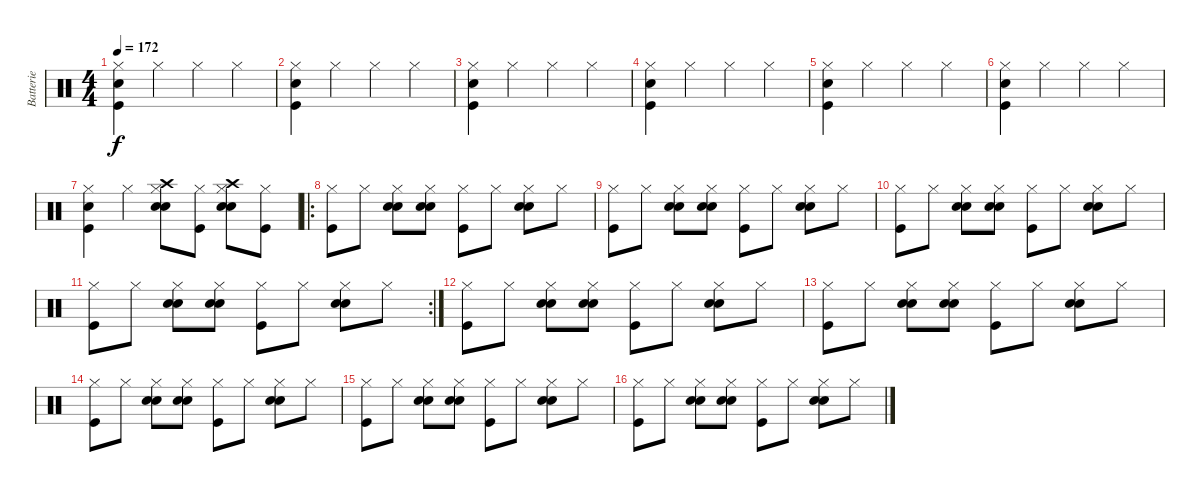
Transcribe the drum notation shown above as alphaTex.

\track ("Batterie" "Batterie") {instrument percussion}
\staff {score}
\articulation defaults
\ts (4 4)
\tempo 172
\clef neutral
\ks c
("Hi-Hat (closed)" "Snare (hit) 2" "Kick (hit)").4{dy f} "Hi-Hat (closed)".4 "Hi-Hat (closed)".4 "Hi-Hat (closed)".4 |
("Hi-Hat (closed)" "Snare (hit) 2" "Kick (hit)").4 "Hi-Hat (closed)".4 "Hi-Hat (closed)".4 "Hi-Hat (closed)".4 |
("Hi-Hat (closed)" "Snare (hit) 2" "Kick (hit)").4 "Hi-Hat (closed)".4 "Hi-Hat (closed)".4 "Hi-Hat (closed)".4 |
("Hi-Hat (closed)" "Snare (hit) 2" "Kick (hit)").4 "Hi-Hat (closed)".4 "Hi-Hat (closed)".4 "Hi-Hat (closed)".4 |
("Hi-Hat (closed)" "Snare (hit) 2" "Kick (hit)").4 "Hi-Hat (closed)".4 "Hi-Hat (closed)".4 "Hi-Hat (closed)".4 |
("Hi-Hat (closed)" "Snare (hit) 2" "Kick (hit)").4 "Hi-Hat (closed)".4 "Hi-Hat (closed)".4 "Hi-Hat (closed)".4 |
("Hi-Hat (closed)" "Snare (hit) 2" "Kick (hit)").4 "Hi-Hat (closed)".4 ("Crash high (hit)" "Snare (hit) 2" "Hi-Hat (closed)" "Electric Snare (hit)").8 ("Hi-Hat (closed)" "Kick (hit)").8 ("Crash high (hit)" "Snare (hit) 2" "Hi-Hat (closed)" "Electric Snare (hit)").8 ("Hi-Hat (closed)" "Kick (hit)").8 |
\ro
("Hi-Hat (closed)" "Kick (hit)").8 "Hi-Hat (closed)".8 ("Electric Snare (hit)" "Hi-Hat (closed)" "Snare (hit) 2").8 ("Electric Snare (hit)" "Hi-Hat (closed)" "Snare (hit) 2").8 ("Hi-Hat (closed)" "Kick (hit)").8 "Hi-Hat (closed)".8 ("Electric Snare (hit)" "Hi-Hat (closed)" "Snare (hit) 2").8 "Hi-Hat (closed)".8 |
("Hi-Hat (closed)" "Kick (hit)").8 "Hi-Hat (closed)".8 ("Electric Snare (hit)" "Hi-Hat (closed)" "Snare (hit) 2").8 ("Electric Snare (hit)" "Hi-Hat (closed)" "Snare (hit) 2").8 ("Hi-Hat (closed)" "Kick (hit)").8 "Hi-Hat (closed)".8 ("Electric Snare (hit)" "Hi-Hat (closed)" "Snare (hit) 2").8 "Hi-Hat (closed)".8 |
("Hi-Hat (closed)" "Kick (hit)").8 "Hi-Hat (closed)".8 ("Electric Snare (hit)" "Hi-Hat (closed)" "Snare (hit) 2").8 ("Electric Snare (hit)" "Hi-Hat (closed)" "Snare (hit) 2").8 ("Hi-Hat (closed)" "Kick (hit)").8 "Hi-Hat (closed)".8 ("Electric Snare (hit)" "Hi-Hat (closed)" "Snare (hit) 2").8 "Hi-Hat (closed)".8 |
\rc 2
("Hi-Hat (closed)" "Kick (hit)").8 "Hi-Hat (closed)".8 ("Electric Snare (hit)" "Hi-Hat (closed)" "Snare (hit) 2").8 ("Electric Snare (hit)" "Hi-Hat (closed)" "Snare (hit) 2").8 ("Hi-Hat (closed)" "Kick (hit)").8 "Hi-Hat (closed)".8 ("Electric Snare (hit)" "Hi-Hat (closed)" "Snare (hit) 2").8 "Hi-Hat (closed)".8 |
("Hi-Hat (closed)" "Kick (hit)").8 "Hi-Hat (closed)".8 ("Electric Snare (hit)" "Hi-Hat (closed)" "Snare (hit) 2").8 ("Electric Snare (hit)" "Hi-Hat (closed)" "Snare (hit) 2").8 ("Hi-Hat (closed)" "Kick (hit)").8 "Hi-Hat (closed)".8 ("Electric Snare (hit)" "Hi-Hat (closed)" "Snare (hit) 2").8 "Hi-Hat (closed)".8 |
("Hi-Hat (closed)" "Kick (hit)").8 "Hi-Hat (closed)".8 ("Electric Snare (hit)" "Hi-Hat (closed)" "Snare (hit) 2").8 ("Electric Snare (hit)" "Hi-Hat (closed)" "Snare (hit) 2").8 ("Hi-Hat (closed)" "Kick (hit)").8 "Hi-Hat (closed)".8 ("Electric Snare (hit)" "Hi-Hat (closed)" "Snare (hit) 2").8 "Hi-Hat (closed)".8 |
("Hi-Hat (closed)" "Kick (hit)").8 "Hi-Hat (closed)".8 ("Electric Snare (hit)" "Hi-Hat (closed)" "Snare (hit) 2").8 ("Electric Snare (hit)" "Hi-Hat (closed)" "Snare (hit) 2").8 ("Hi-Hat (closed)" "Kick (hit)").8 "Hi-Hat (closed)".8 ("Electric Snare (hit)" "Hi-Hat (closed)" "Snare (hit) 2").8 "Hi-Hat (closed)".8 |
("Hi-Hat (closed)" "Kick (hit)").8 "Hi-Hat (closed)".8 ("Electric Snare (hit)" "Hi-Hat (closed)" "Snare (hit) 2").8 ("Electric Snare (hit)" "Hi-Hat (closed)" "Snare (hit) 2").8 ("Hi-Hat (closed)" "Kick (hit)").8 "Hi-Hat (closed)".8 ("Electric Snare (hit)" "Hi-Hat (closed)" "Snare (hit) 2").8 "Hi-Hat (closed)".8 |
("Hi-Hat (closed)" "Kick (hit)").8 "Hi-Hat (closed)".8 ("Electric Snare (hit)" "Hi-Hat (closed)" "Snare (hit) 2").8 ("Electric Snare (hit)" "Hi-Hat (closed)" "Snare (hit) 2").8 ("Hi-Hat (closed)" "Kick (hit)").8 "Hi-Hat (closed)".8 ("Electric Snare (hit)" "Hi-Hat (closed)" "Snare (hit) 2").8 "Hi-Hat (closed)".8
